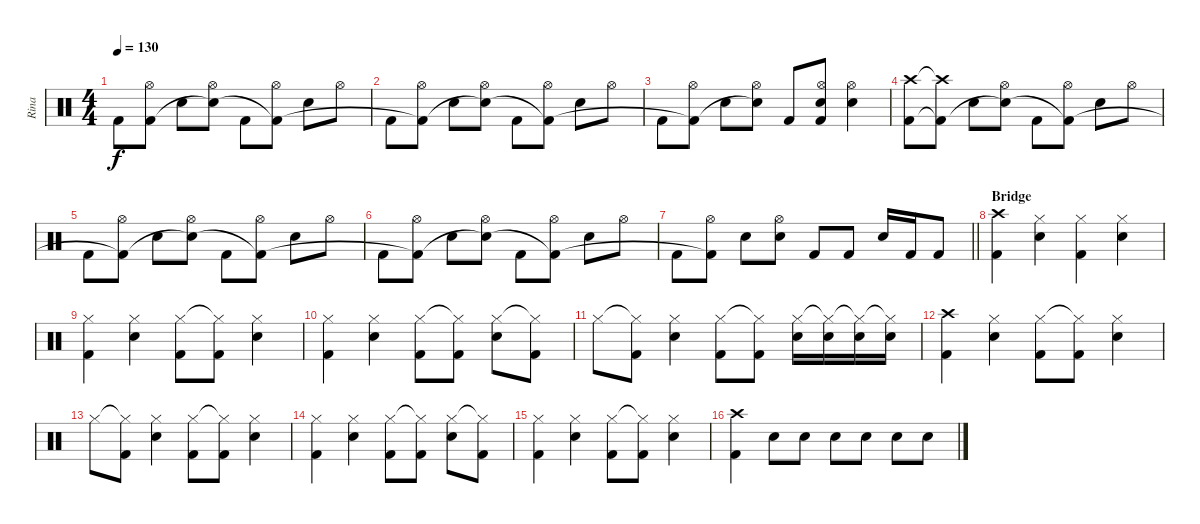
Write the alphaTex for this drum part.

\track ("Rina" "Rina") {instrument percussion}
\staff {score}
\articulation defaults
\ts (4 4)
\tempo 130
\clef neutral
\ks c "Kick (hit) 2".8{dy f}
("Hi-Hat (open)" "Kick (hit) 2"{t}).8 "Snare (hit) 2".8 ("Hi-Hat (open)" "Snare (hit) 2"{t}).8 "Kick (hit) 2".8 ("Hi-Hat (open)" "Kick (hit) 2"{t}).8 "Snare (hit) 2".8 "Hi-Hat (open)".8 |
"Kick (hit) 2".8 ("Hi-Hat (open)" "Kick (hit) 2"{t}).8 "Snare (hit) 2".8 ("Hi-Hat (open)" "Snare (hit) 2"{t}).8 "Kick (hit) 2".8 ("Hi-Hat (open)" "Kick (hit) 2"{t}).8 "Snare (hit) 2".8 "Hi-Hat (open)".8 |
"Kick (hit) 2".8 ("Hi-Hat (open)" "Kick (hit) 2"{t}).8 "Snare (hit) 2".8 ("Hi-Hat (open)" "Snare (hit) 2"{t}).8 "Kick (hit) 2".8 ("Hi-Hat (open)" "Snare (hit) 2" "Kick (hit) 2").8 ("Hi-Hat (open)" "Snare (hit) 2").4 |
("Crash high (hit)" "Kick (hit) 2").8 ("Crash high (hit)"{t} "Kick (hit) 2"{t}).8 "Snare (hit) 2".8 ("Hi-Hat (open)" "Snare (hit) 2"{t}).8 "Kick (hit) 2".8 ("Hi-Hat (open)" "Kick (hit) 2"{t}).8 "Snare (hit) 2".8 "Hi-Hat (open)".8 |
"Kick (hit) 2".8 ("Hi-Hat (open)" "Kick (hit) 2"{t}).8 "Snare (hit) 2".8 ("Hi-Hat (open)" "Snare (hit) 2"{t}).8 "Kick (hit) 2".8 ("Hi-Hat (open)" "Kick (hit) 2"{t}).8 "Snare (hit) 2".8 "Hi-Hat (open)".8 |
"Kick (hit) 2".8 ("Hi-Hat (open)" "Kick (hit) 2"{t}).8 "Snare (hit) 2".8 ("Hi-Hat (open)" "Snare (hit) 2"{t}).8 "Kick (hit) 2".8 ("Hi-Hat (open)" "Kick (hit) 2"{t}).8 "Snare (hit) 2".8 "Hi-Hat (open)".8 |
\barLineRight lightlight "Kick (hit) 2".8
("Hi-Hat (open)" "Kick (hit) 2"{t}).8 "Snare (hit) 2".8 ("Hi-Hat (open)" "Snare (hit) 2").8 "Kick (hit) 2".8 "Kick (hit) 2".8 "Snare (hit) 2".16 "Kick (hit) 2".16 "Kick (hit) 2".8 |
\section ("" "Bridge")
("Crash high (hit)" "Kick (hit) 2").4 ("Hi-Hat (closed)" "Snare (hit) 2").4 ("Hi-Hat (closed)" "Kick (hit) 2").4 ("Hi-Hat (closed)" "Snare (hit) 2").4 |
("Hi-Hat (closed)" "Kick (hit) 2").4 ("Hi-Hat (closed)" "Snare (hit) 2").4 ("Hi-Hat (closed)" "Kick (hit) 2").8 ("Hi-Hat (closed)"{t} "Kick (hit) 2").8 ("Hi-Hat (closed)" "Snare (hit) 2").4 |
("Hi-Hat (closed)" "Kick (hit) 2").4 ("Hi-Hat (closed)" "Snare (hit) 2").4 ("Hi-Hat (closed)" "Kick (hit) 2").8 ("Hi-Hat (closed)"{t} "Kick (hit) 2").8 ("Hi-Hat (closed)" "Snare (hit) 2").8 ("Hi-Hat (closed)"{t} "Kick (hit) 2").8 |
"Hi-Hat (closed)".8 ("Hi-Hat (closed)"{t} "Kick (hit) 2").8 ("Hi-Hat (closed)" "Snare (hit) 2").4 ("Hi-Hat (closed)" "Kick (hit) 2").8 ("Hi-Hat (closed)"{t} "Kick (hit) 2").8 ("Hi-Hat (closed)" "Snare (hit) 2").16 ("Hi-Hat (closed)"{t} "Snare (hit) 2").16 ("Hi-Hat (closed)"{t} "Snare (hit) 2").16 ("Hi-Hat (closed)"{t} "Snare (hit) 2").16 |
("Crash high (hit)" "Kick (hit) 2").4 ("Hi-Hat (closed)" "Snare (hit) 2").4 ("Hi-Hat (closed)" "Kick (hit) 2").8 ("Hi-Hat (closed)"{t} "Kick (hit) 2").8 ("Hi-Hat (closed)" "Snare (hit) 2").4 |
"Hi-Hat (closed)".8 ("Hi-Hat (closed)"{t} "Kick (hit) 2").8 ("Hi-Hat (closed)" "Snare (hit) 2").4 ("Hi-Hat (closed)" "Kick (hit) 2").8 ("Hi-Hat (closed)"{t} "Kick (hit) 2").8 ("Hi-Hat (closed)" "Snare (hit) 2").4 |
("Hi-Hat (closed)" "Kick (hit) 2").4 ("Hi-Hat (closed)" "Snare (hit) 2").4 ("Hi-Hat (closed)" "Kick (hit) 2").8 ("Hi-Hat (closed)"{t} "Kick (hit) 2").8 ("Hi-Hat (closed)" "Snare (hit) 2").8 ("Hi-Hat (closed)"{t} "Kick (hit) 2").8 |
("Hi-Hat (closed)" "Kick (hit) 2").4 ("Hi-Hat (closed)" "Snare (hit) 2").4 ("Hi-Hat (closed)" "Kick (hit) 2").8 ("Hi-Hat (closed)"{t} "Kick (hit) 2").8 ("Hi-Hat (closed)" "Snare (hit) 2").4 |
("Crash high (hit)" "Kick (hit) 2").4 "Snare (hit) 2".8 "Snare (hit) 2".8 "Snare (hit) 2".8 "Snare (hit) 2".8 "Snare (hit) 2".8 "Snare (hit) 2".8
